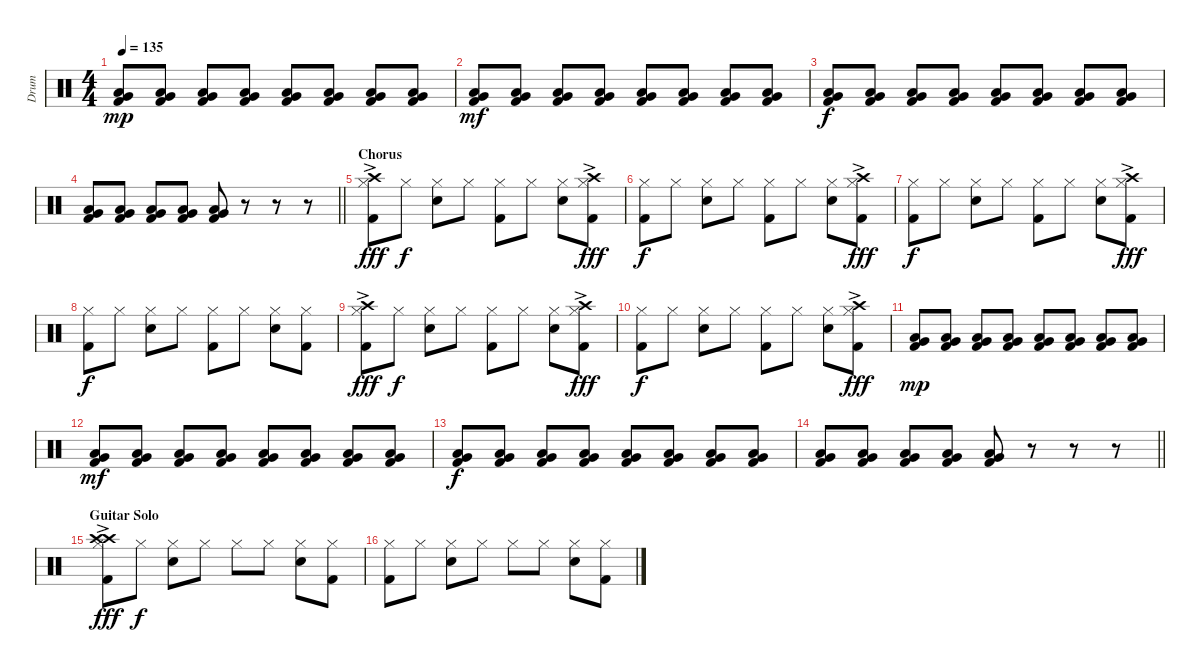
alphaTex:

\track ("Drum" "Drum") {instrument percussion}
\staff {score}
\articulation defaults
\ts (4 4)
\tempo 135
\clef neutral
\ks c
("Very Low Tom (hit)" "Low Floor Tom (hit)" "Kick (hit) 2").8{dy mp} ("Very Low Tom (hit)" "Low Floor Tom (hit)" "Kick (hit) 2").8 ("Very Low Tom (hit)" "Low Floor Tom (hit)" "Kick (hit) 2").8 ("Very Low Tom (hit)" "Low Floor Tom (hit)" "Kick (hit) 2").8 ("Very Low Tom (hit)" "Low Floor Tom (hit)" "Kick (hit) 2").8 ("Very Low Tom (hit)" "Low Floor Tom (hit)" "Kick (hit) 2").8 ("Very Low Tom (hit)" "Low Floor Tom (hit)" "Kick (hit) 2").8 ("Very Low Tom (hit)" "Low Floor Tom (hit)" "Kick (hit) 2").8 |
("Very Low Tom (hit)" "Low Floor Tom (hit)" "Kick (hit) 2").8{dy mf} ("Very Low Tom (hit)" "Low Floor Tom (hit)" "Kick (hit) 2").8 ("Very Low Tom (hit)" "Low Floor Tom (hit)" "Kick (hit) 2").8 ("Very Low Tom (hit)" "Low Floor Tom (hit)" "Kick (hit) 2").8 ("Very Low Tom (hit)" "Low Floor Tom (hit)" "Kick (hit) 2").8 ("Very Low Tom (hit)" "Low Floor Tom (hit)" "Kick (hit) 2").8 ("Very Low Tom (hit)" "Low Floor Tom (hit)" "Kick (hit) 2").8 ("Very Low Tom (hit)" "Low Floor Tom (hit)" "Kick (hit) 2").8 |
("Very Low Tom (hit)" "Low Floor Tom (hit)" "Kick (hit) 2").8{dy f} ("Very Low Tom (hit)" "Low Floor Tom (hit)" "Kick (hit) 2").8 ("Very Low Tom (hit)" "Low Floor Tom (hit)" "Kick (hit) 2").8 ("Very Low Tom (hit)" "Low Floor Tom (hit)" "Kick (hit) 2").8 ("Very Low Tom (hit)" "Low Floor Tom (hit)" "Kick (hit) 2").8 ("Very Low Tom (hit)" "Low Floor Tom (hit)" "Kick (hit) 2").8 ("Very Low Tom (hit)" "Low Floor Tom (hit)" "Kick (hit) 2").8 ("Very Low Tom (hit)" "Low Floor Tom (hit)" "Kick (hit) 2").8 |
\barLineRight lightlight
("Very Low Tom (hit)" "Low Floor Tom (hit)" "Kick (hit) 2").8 ("Very Low Tom (hit)" "Low Floor Tom (hit)" "Kick (hit) 2").8 ("Very Low Tom (hit)" "Low Floor Tom (hit)" "Kick (hit) 2").8 ("Very Low Tom (hit)" "Low Floor Tom (hit)" "Kick (hit) 2").8 ("Very Low Tom (hit)" "Low Floor Tom (hit)" "Kick (hit) 2").8 r.8 r.8 r.8 |
\section ("" "Chorus")
("Crash high (hit)"{ac} "Hi-Hat (closed)" "Kick (hit) 2").8{dy fff} "Hi-Hat (closed)".8{dy f} ("Snare (hit) 2" "Hi-Hat (closed)").8 "Hi-Hat (closed)".8 ("Hi-Hat (closed)" "Kick (hit) 2").8 "Hi-Hat (closed)".8 ("Snare (hit) 2" "Hi-Hat (closed)").8 ("Crash high (hit)"{ac} "Hi-Hat (closed)" "Kick (hit) 2").8{dy fff} |
("Hi-Hat (closed)" "Kick (hit) 2").8{dy f} "Hi-Hat (closed)".8 ("Snare (hit) 2" "Hi-Hat (closed)").8 "Hi-Hat (closed)".8 ("Hi-Hat (closed)" "Kick (hit) 2").8 "Hi-Hat (closed)".8 ("Snare (hit) 2" "Hi-Hat (closed)").8 ("Crash high (hit)"{ac} "Hi-Hat (closed)" "Kick (hit) 2").8{dy fff} |
("Hi-Hat (closed)" "Kick (hit) 2").8{dy f} "Hi-Hat (closed)".8 ("Snare (hit) 2" "Hi-Hat (closed)").8 "Hi-Hat (closed)".8 ("Hi-Hat (closed)" "Kick (hit) 2").8 "Hi-Hat (closed)".8 ("Snare (hit) 2" "Hi-Hat (closed)").8 ("Crash high (hit)"{ac} "Hi-Hat (closed)" "Kick (hit) 2").8{dy fff} |
("Hi-Hat (closed)" "Kick (hit) 2").8{dy f} "Hi-Hat (closed)".8 ("Snare (hit) 2" "Hi-Hat (closed)").8 "Hi-Hat (closed)".8 ("Hi-Hat (closed)" "Kick (hit) 2").8 "Hi-Hat (closed)".8 ("Snare (hit) 2" "Hi-Hat (closed)").8 ("Hi-Hat (closed)" "Kick (hit) 2").8 |
("Crash high (hit)"{ac} "Hi-Hat (closed)" "Kick (hit) 2").8{dy fff} "Hi-Hat (closed)".8{dy f} ("Snare (hit) 2" "Hi-Hat (closed)").8 "Hi-Hat (closed)".8 ("Hi-Hat (closed)" "Kick (hit) 2").8 "Hi-Hat (closed)".8 ("Snare (hit) 2" "Hi-Hat (closed)").8 ("Crash high (hit)"{ac} "Hi-Hat (closed)" "Kick (hit) 2").8{dy fff} |
("Hi-Hat (closed)" "Kick (hit) 2").8{dy f} "Hi-Hat (closed)".8 ("Snare (hit) 2" "Hi-Hat (closed)").8 "Hi-Hat (closed)".8 ("Hi-Hat (closed)" "Kick (hit) 2").8 "Hi-Hat (closed)".8 ("Snare (hit) 2" "Hi-Hat (closed)").8 ("Crash high (hit)"{ac} "Hi-Hat (closed)" "Kick (hit) 2").8{dy fff} |
("Very Low Tom (hit)" "Low Floor Tom (hit)" "Kick (hit) 2").8{dy mp} ("Very Low Tom (hit)" "Low Floor Tom (hit)" "Kick (hit) 2").8 ("Very Low Tom (hit)" "Low Floor Tom (hit)" "Kick (hit) 2").8 ("Very Low Tom (hit)" "Low Floor Tom (hit)" "Kick (hit) 2").8 ("Very Low Tom (hit)" "Low Floor Tom (hit)" "Kick (hit) 2").8 ("Very Low Tom (hit)" "Low Floor Tom (hit)" "Kick (hit) 2").8 ("Very Low Tom (hit)" "Low Floor Tom (hit)" "Kick (hit) 2").8 ("Very Low Tom (hit)" "Low Floor Tom (hit)" "Kick (hit) 2").8 |
("Very Low Tom (hit)" "Low Floor Tom (hit)" "Kick (hit) 2").8{dy mf} ("Very Low Tom (hit)" "Low Floor Tom (hit)" "Kick (hit) 2").8 ("Very Low Tom (hit)" "Low Floor Tom (hit)" "Kick (hit) 2").8 ("Very Low Tom (hit)" "Low Floor Tom (hit)" "Kick (hit) 2").8 ("Very Low Tom (hit)" "Low Floor Tom (hit)" "Kick (hit) 2").8 ("Very Low Tom (hit)" "Low Floor Tom (hit)" "Kick (hit) 2").8 ("Very Low Tom (hit)" "Low Floor Tom (hit)" "Kick (hit) 2").8 ("Very Low Tom (hit)" "Low Floor Tom (hit)" "Kick (hit) 2").8 |
("Very Low Tom (hit)" "Low Floor Tom (hit)" "Kick (hit) 2").8{dy f} ("Very Low Tom (hit)" "Low Floor Tom (hit)" "Kick (hit) 2").8 ("Very Low Tom (hit)" "Low Floor Tom (hit)" "Kick (hit) 2").8 ("Very Low Tom (hit)" "Low Floor Tom (hit)" "Kick (hit) 2").8 ("Very Low Tom (hit)" "Low Floor Tom (hit)" "Kick (hit) 2").8 ("Very Low Tom (hit)" "Low Floor Tom (hit)" "Kick (hit) 2").8 ("Very Low Tom (hit)" "Low Floor Tom (hit)" "Kick (hit) 2").8 ("Very Low Tom (hit)" "Low Floor Tom (hit)" "Kick (hit) 2").8 |
\barLineRight lightlight
("Very Low Tom (hit)" "Low Floor Tom (hit)" "Kick (hit) 2").8 ("Very Low Tom (hit)" "Low Floor Tom (hit)" "Kick (hit) 2").8 ("Very Low Tom (hit)" "Low Floor Tom (hit)" "Kick (hit) 2").8 ("Very Low Tom (hit)" "Low Floor Tom (hit)" "Kick (hit) 2").8 ("Very Low Tom (hit)" "Low Floor Tom (hit)" "Kick (hit) 2").8 r.8 r.8 r.8 |
\section ("" "Guitar Solo")
("Crash high (hit)"{ac} "Crash high (hit)"{ac} "Hi-Hat (closed)" "Kick (hit) 2").8{dy fff} "Hi-Hat (closed)".8{dy f} ("Snare (hit) 2" "Hi-Hat (closed)").8 "Hi-Hat (closed)".8 "Hi-Hat (closed)".8 "Hi-Hat (closed)".8 ("Snare (hit) 2" "Hi-Hat (closed)").8 ("Hi-Hat (closed)" "Kick (hit) 2").8 |
("Hi-Hat (closed)" "Kick (hit) 2").8 "Hi-Hat (closed)".8 ("Snare (hit) 2" "Hi-Hat (closed)").8 "Hi-Hat (closed)".8 "Hi-Hat (closed)".8 "Hi-Hat (closed)".8 ("Snare (hit) 2" "Hi-Hat (closed)").8 ("Hi-Hat (closed)" "Kick (hit) 2").8
